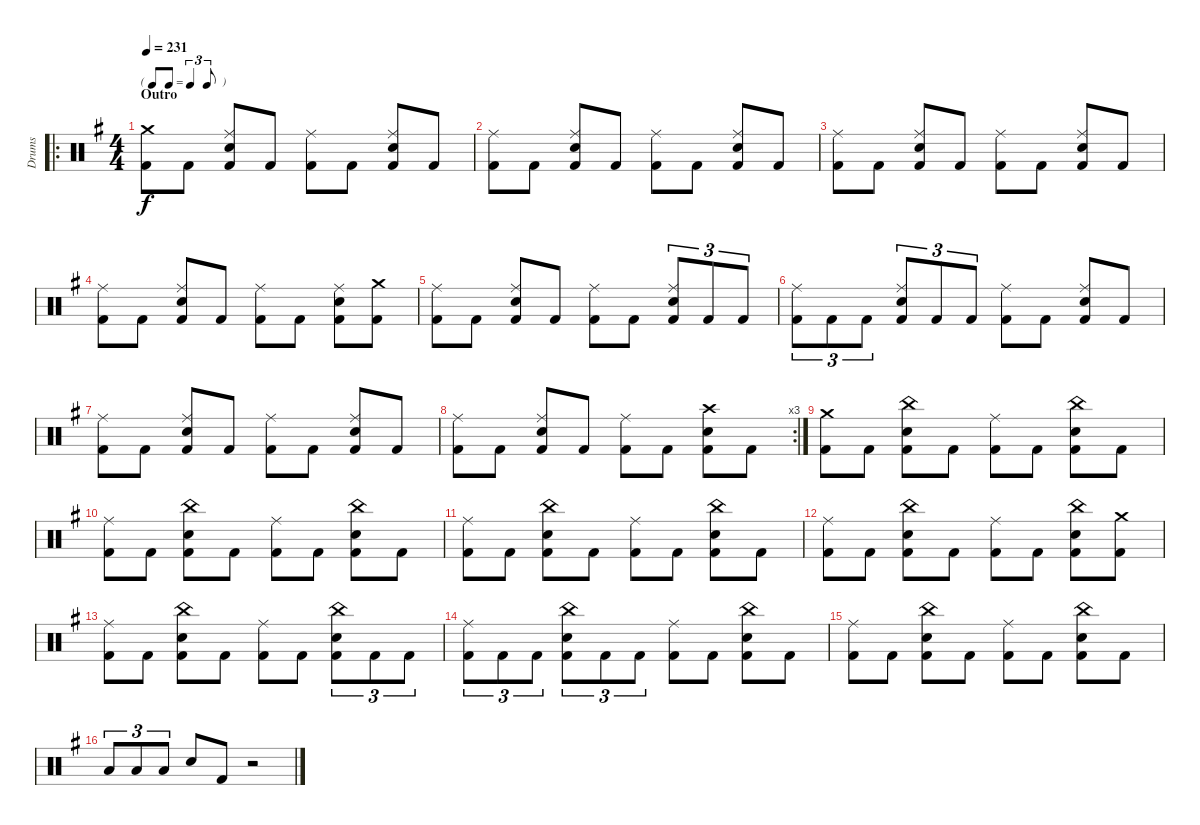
\track ("Drums" "Drums") {instrument percussion}
\staff {score}
\articulation defaults
\ro
\ts (4 4)
\tf triplet8th
\section ("" "Outro")
\tempo 231
\clef neutral
\ks eminor
("Crash medium (hit)" "Kick (hit) 2").8{dy f} "Kick (hit) 2".8 ("Ride (middle)" "Electric Snare (hit)" "Kick (hit) 2").8 "Kick (hit) 2".8 ("Ride (middle)" "Kick (hit) 2").8 "Kick (hit) 2".8 ("Ride (middle)" "Electric Snare (hit)" "Kick (hit) 2").8 "Kick (hit) 2".8 |
("Ride (middle)" "Kick (hit) 2").8 "Kick (hit) 2".8 ("Ride (middle)" "Electric Snare (hit)" "Kick (hit) 2").8 "Kick (hit) 2".8 ("Ride (middle)" "Kick (hit) 2").8 "Kick (hit) 2".8 ("Ride (middle)" "Electric Snare (hit)" "Kick (hit) 2").8 "Kick (hit) 2".8 |
("Ride (middle)" "Kick (hit) 2").8 "Kick (hit) 2".8 ("Ride (middle)" "Electric Snare (hit)" "Kick (hit) 2").8 "Kick (hit) 2".8 ("Ride (middle)" "Kick (hit) 2").8 "Kick (hit) 2".8 ("Ride (middle)" "Electric Snare (hit)" "Kick (hit) 2").8 "Kick (hit) 2".8 |
("Ride (middle)" "Kick (hit) 2").8 "Kick (hit) 2".8 ("Ride (middle)" "Electric Snare (hit)" "Kick (hit) 2").8 "Kick (hit) 2".8 ("Ride (middle)" "Kick (hit) 2").8 "Kick (hit) 2".8 ("Ride (middle)" "Electric Snare (hit)" "Kick (hit) 2").8 ("Crash medium (hit)" "Kick (hit) 2").8 |
("Ride (middle)" "Kick (hit) 2").8 "Kick (hit) 2".8 ("Ride (middle)" "Electric Snare (hit)" "Kick (hit) 2").8 "Kick (hit) 2".8 ("Ride (middle)" "Kick (hit) 2").8 "Kick (hit) 2".8 ("Ride (middle)" "Electric Snare (hit)" "Kick (hit) 2").8{tu (3 2)} "Kick (hit) 2".8{tu (3 2)} "Kick (hit) 2".8{tu (3 2)} |
("Ride (middle)" "Kick (hit) 2").8{tu (3 2)} "Kick (hit) 2".8{tu (3 2)} "Kick (hit) 2".8{tu (3 2)} ("Ride (middle)" "Electric Snare (hit)" "Kick (hit) 2").8{tu (3 2)} "Kick (hit) 2".8{tu (3 2)} "Kick (hit) 2".8{tu (3 2)} ("Ride (middle)" "Kick (hit) 2").8 "Kick (hit) 2".8 ("Ride (middle)" "Electric Snare (hit)" "Kick (hit) 2").8 "Kick (hit) 2".8 |
("Ride (middle)" "Kick (hit) 2").8 "Kick (hit) 2".8 ("Ride (middle)" "Electric Snare (hit)" "Kick (hit) 2").8 "Kick (hit) 2".8 ("Ride (middle)" "Kick (hit) 2").8 "Kick (hit) 2".8 ("Ride (middle)" "Electric Snare (hit)" "Kick (hit) 2").8 "Kick (hit) 2".8 |
\rc 3
("Ride (middle)" "Kick (hit) 2").8 "Kick (hit) 2".8 ("Ride (middle)" "Electric Snare (hit)" "Kick (hit) 2").8 "Kick (hit) 2".8 ("Ride (middle)" "Kick (hit) 2").8 "Kick (hit) 2".8 ("Crash high (hit)" "Electric Snare (hit)" "Kick (hit) 2").8 "Kick (hit) 2".8 |
("Crash medium (hit)" "Kick (hit) 2").8 "Kick (hit) 2".8 ("China (hit)" "Electric Snare (hit)" "Kick (hit) 2").8 "Kick (hit) 2".8 ("Ride (middle)" "Kick (hit) 2").8 "Kick (hit) 2".8 ("China (hit)" "Electric Snare (hit)" "Kick (hit) 2").8 "Kick (hit) 2".8 |
("Ride (middle)" "Kick (hit) 2").8 "Kick (hit) 2".8 ("China (hit)" "Electric Snare (hit)" "Kick (hit) 2").8 "Kick (hit) 2".8 ("Ride (middle)" "Kick (hit) 2").8 "Kick (hit) 2".8 ("China (hit)" "Electric Snare (hit)" "Kick (hit) 2").8 "Kick (hit) 2".8 |
("Ride (middle)" "Kick (hit) 2").8 "Kick (hit) 2".8 ("China (hit)" "Electric Snare (hit)" "Kick (hit) 2").8 "Kick (hit) 2".8 ("Ride (middle)" "Kick (hit) 2").8 "Kick (hit) 2".8 ("China (hit)" "Electric Snare (hit)" "Kick (hit) 2").8 "Kick (hit) 2".8 |
("Ride (middle)" "Kick (hit) 2").8 "Kick (hit) 2".8 ("China (hit)" "Electric Snare (hit)" "Kick (hit) 2").8 "Kick (hit) 2".8 ("Ride (middle)" "Kick (hit) 2").8 "Kick (hit) 2".8 ("China (hit)" "Electric Snare (hit)" "Kick (hit) 2").8 ("Crash medium (hit)" "Kick (hit) 2").8 |
("Ride (middle)" "Kick (hit) 2").8 "Kick (hit) 2".8 ("China (hit)" "Electric Snare (hit)" "Kick (hit) 2").8 "Kick (hit) 2".8 ("Ride (middle)" "Kick (hit) 2").8 "Kick (hit) 2".8 ("China (hit)" "Electric Snare (hit)" "Kick (hit) 2").8{tu (3 2)} "Kick (hit) 2".8{tu (3 2)} "Kick (hit) 2".8{tu (3 2)} |
("Ride (middle)" "Kick (hit) 2").8{tu (3 2)} "Kick (hit) 2".8{tu (3 2)} "Kick (hit) 2".8{tu (3 2)} ("China (hit)" "Electric Snare (hit)" "Kick (hit) 2").8{tu (3 2)} "Kick (hit) 2".8{tu (3 2)} "Kick (hit) 2".8{tu (3 2)} ("Ride (middle)" "Kick (hit) 2").8 "Kick (hit) 2".8 ("China (hit)" "Electric Snare (hit)" "Kick (hit) 2").8 "Kick (hit) 2".8 |
("Ride (middle)" "Kick (hit) 2").8 "Kick (hit) 2".8 ("China (hit)" "Electric Snare (hit)" "Kick (hit) 2").8 "Kick (hit) 2".8 ("Ride (middle)" "Kick (hit) 2").8 "Kick (hit) 2".8 ("China (hit)" "Electric Snare (hit)" "Kick (hit) 2").8 "Kick (hit) 2".8 |
"Low Tom (hit)".8{tu (3 2)} "Low Tom (hit)".8{tu (3 2)} "Low Tom (hit)".8{tu (3 2)} "Electric Snare (hit)".8 "Kick (hit) 2".8 r.2
